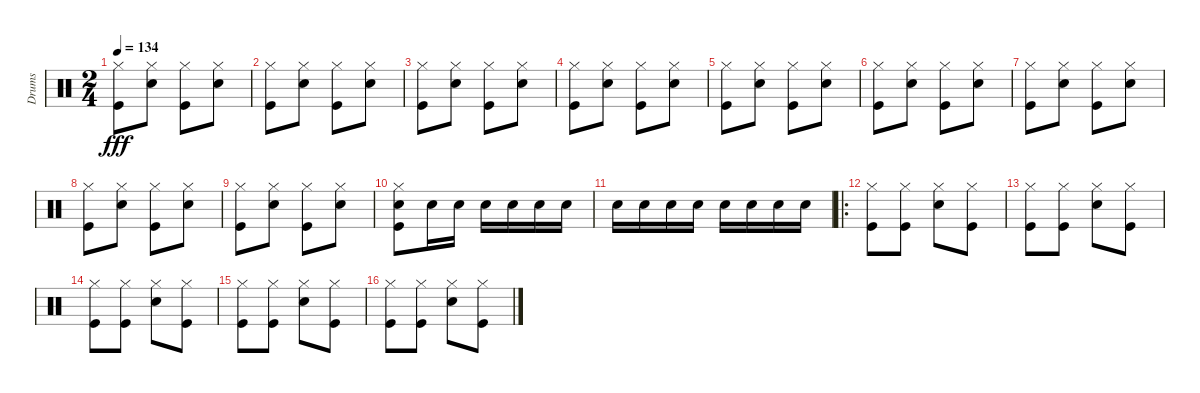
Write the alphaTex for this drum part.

\track ("Drums" "Drums") {instrument percussion}
\staff {score}
\articulation defaults
\ts (2 4)
\tempo 134
\clef neutral
\ks c
("Hi-Hat (closed)" "Kick (hit)").8{dy fff} ("Hi-Hat (closed)" "Electric Snare (hit)").8 ("Hi-Hat (closed)" "Kick (hit)").8 ("Hi-Hat (closed)" "Electric Snare (hit)").8 |
("Hi-Hat (closed)" "Kick (hit)").8 ("Hi-Hat (closed)" "Electric Snare (hit)").8 ("Hi-Hat (closed)" "Kick (hit)").8 ("Hi-Hat (closed)" "Electric Snare (hit)").8 |
("Hi-Hat (closed)" "Kick (hit)").8 ("Hi-Hat (closed)" "Electric Snare (hit)").8 ("Hi-Hat (closed)" "Kick (hit)").8 ("Hi-Hat (closed)" "Electric Snare (hit)").8 |
("Hi-Hat (closed)" "Kick (hit)").8 ("Hi-Hat (closed)" "Electric Snare (hit)").8 ("Hi-Hat (closed)" "Kick (hit)").8 ("Hi-Hat (closed)" "Electric Snare (hit)").8 |
("Hi-Hat (closed)" "Kick (hit)").8 ("Hi-Hat (closed)" "Electric Snare (hit)").8 ("Hi-Hat (closed)" "Kick (hit)").8 ("Hi-Hat (closed)" "Electric Snare (hit)").8 |
("Hi-Hat (closed)" "Kick (hit)").8 ("Hi-Hat (closed)" "Electric Snare (hit)").8 ("Hi-Hat (closed)" "Kick (hit)").8 ("Hi-Hat (closed)" "Electric Snare (hit)").8 |
("Hi-Hat (closed)" "Kick (hit)").8 ("Hi-Hat (closed)" "Electric Snare (hit)").8 ("Hi-Hat (closed)" "Kick (hit)").8 ("Hi-Hat (closed)" "Electric Snare (hit)").8 |
("Hi-Hat (closed)" "Kick (hit)").8 ("Hi-Hat (closed)" "Electric Snare (hit)").8 ("Hi-Hat (closed)" "Kick (hit)").8 ("Hi-Hat (closed)" "Electric Snare (hit)").8 |
("Hi-Hat (closed)" "Kick (hit)").8 ("Hi-Hat (closed)" "Electric Snare (hit)").8 ("Hi-Hat (closed)" "Kick (hit)").8 ("Hi-Hat (closed)" "Electric Snare (hit)").8 |
("Hi-Hat (closed)" "Electric Snare (hit)" "Kick (hit)").8 "Electric Snare (hit)".16 "Electric Snare (hit)".16 "Electric Snare (hit)".16 "Electric Snare (hit)".16 "Electric Snare (hit)".16 "Electric Snare (hit)".16 |
"Electric Snare (hit)".16 "Electric Snare (hit)".16 "Electric Snare (hit)".16 "Electric Snare (hit)".16 "Electric Snare (hit)".16 "Electric Snare (hit)".16 "Electric Snare (hit)".16 "Electric Snare (hit)".16 |
\ro
("Hi-Hat (closed)" "Kick (hit)").8 ("Hi-Hat (closed)" "Kick (hit)").8 ("Hi-Hat (closed)" "Electric Snare (hit)").8 ("Hi-Hat (closed)" "Kick (hit)").8 |
("Hi-Hat (closed)" "Kick (hit)").8 ("Hi-Hat (closed)" "Kick (hit)").8 ("Hi-Hat (closed)" "Electric Snare (hit)").8 ("Hi-Hat (closed)" "Kick (hit)").8 |
("Hi-Hat (closed)" "Kick (hit)").8 ("Hi-Hat (closed)" "Kick (hit)").8 ("Hi-Hat (closed)" "Electric Snare (hit)").8 ("Hi-Hat (closed)" "Kick (hit)").8 |
("Hi-Hat (closed)" "Kick (hit)").8 ("Hi-Hat (closed)" "Kick (hit)").8 ("Hi-Hat (closed)" "Electric Snare (hit)").8 ("Hi-Hat (closed)" "Kick (hit)").8 |
("Hi-Hat (closed)" "Kick (hit)").8 ("Hi-Hat (closed)" "Kick (hit)").8 ("Hi-Hat (closed)" "Electric Snare (hit)").8 ("Hi-Hat (closed)" "Kick (hit)").8
